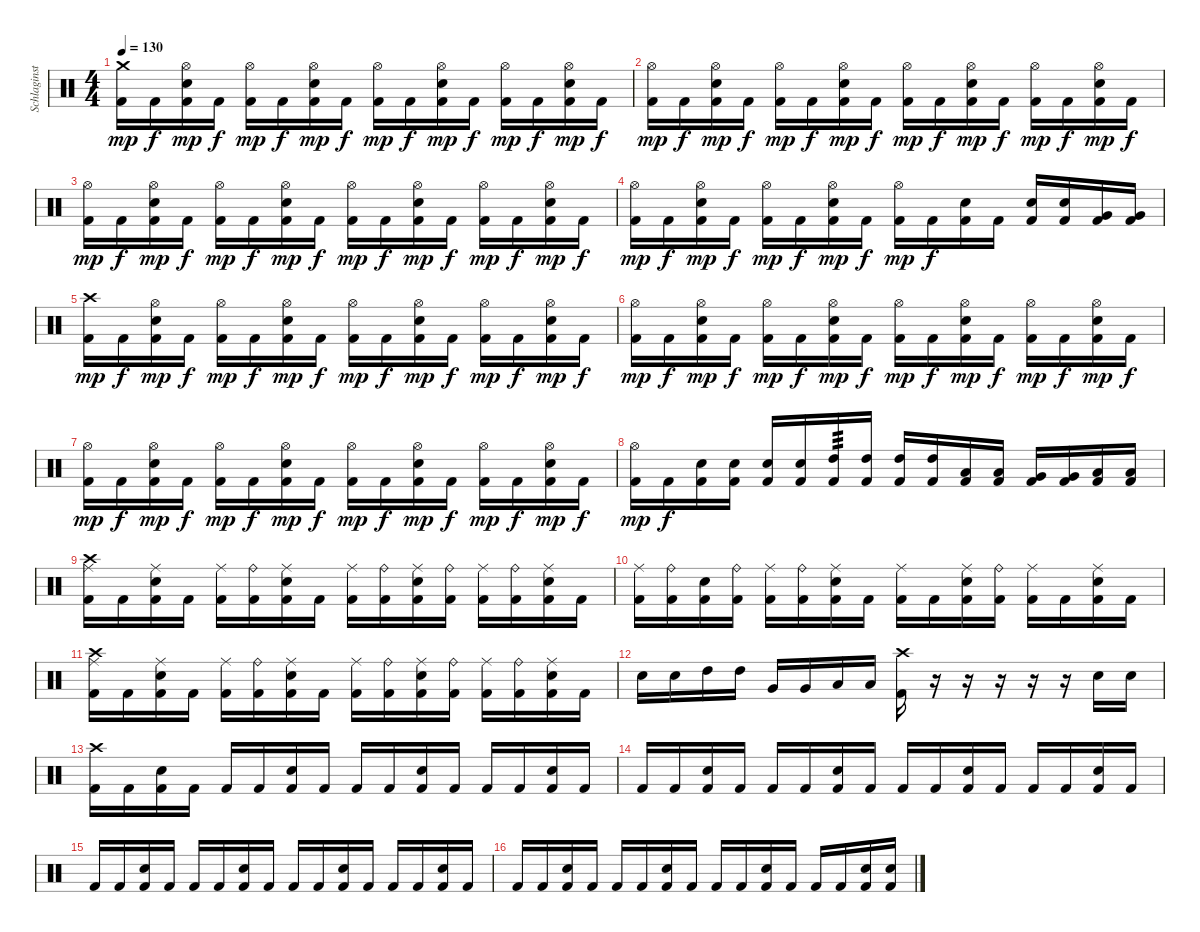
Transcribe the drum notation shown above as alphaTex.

\track ("Schlaginstrumente - Auswahl" "Schlaginst") {instrument percussion}
\staff {score}
\articulation defaults
\ts (4 4)
\tempo 130
\clef neutral
\ks c
("Crash medium (hit)" "Kick (hit) 2").16{dy mp} "Kick (hit) 2".16{dy f} ("Hi-Hat (open)" "Electric Snare (hit)" "Kick (hit) 2").16{dy mp} "Kick (hit) 2".16{dy f} ("Hi-Hat (open)" "Kick (hit) 2").16{dy mp} "Kick (hit) 2".16{dy f} ("Hi-Hat (open)" "Electric Snare (hit)" "Kick (hit) 2").16{dy mp} "Kick (hit) 2".16{dy f} ("Hi-Hat (open)" "Kick (hit) 2").16{dy mp} "Kick (hit) 2".16{dy f} ("Hi-Hat (open)" "Electric Snare (hit)" "Kick (hit) 2").16{dy mp} "Kick (hit) 2".16{dy f} ("Hi-Hat (open)" "Kick (hit) 2").16{dy mp} "Kick (hit) 2".16{dy f} ("Hi-Hat (open)" "Electric Snare (hit)" "Kick (hit) 2").16{dy mp} "Kick (hit) 2".16{dy f} |
("Hi-Hat (open)" "Kick (hit) 2").16{dy mp} "Kick (hit) 2".16{dy f} ("Hi-Hat (open)" "Electric Snare (hit)" "Kick (hit) 2").16{dy mp} "Kick (hit) 2".16{dy f} ("Hi-Hat (open)" "Kick (hit) 2").16{dy mp} "Kick (hit) 2".16{dy f} ("Hi-Hat (open)" "Electric Snare (hit)" "Kick (hit) 2").16{dy mp} "Kick (hit) 2".16{dy f} ("Hi-Hat (open)" "Kick (hit) 2").16{dy mp} "Kick (hit) 2".16{dy f} ("Hi-Hat (open)" "Electric Snare (hit)" "Kick (hit) 2").16{dy mp} "Kick (hit) 2".16{dy f} ("Hi-Hat (open)" "Kick (hit) 2").16{dy mp} "Kick (hit) 2".16{dy f} ("Hi-Hat (open)" "Electric Snare (hit)" "Kick (hit) 2").16{dy mp} "Kick (hit) 2".16{dy f} |
("Hi-Hat (open)" "Kick (hit) 2").16{dy mp} "Kick (hit) 2".16{dy f} ("Hi-Hat (open)" "Electric Snare (hit)" "Kick (hit) 2").16{dy mp} "Kick (hit) 2".16{dy f} ("Hi-Hat (open)" "Kick (hit) 2").16{dy mp} "Kick (hit) 2".16{dy f} ("Hi-Hat (open)" "Electric Snare (hit)" "Kick (hit) 2").16{dy mp} "Kick (hit) 2".16{dy f} ("Hi-Hat (open)" "Kick (hit) 2").16{dy mp} "Kick (hit) 2".16{dy f} ("Hi-Hat (open)" "Electric Snare (hit)" "Kick (hit) 2").16{dy mp} "Kick (hit) 2".16{dy f} ("Hi-Hat (open)" "Kick (hit) 2").16{dy mp} "Kick (hit) 2".16{dy f} ("Hi-Hat (open)" "Electric Snare (hit)" "Kick (hit) 2").16{dy mp} "Kick (hit) 2".16{dy f} |
("Hi-Hat (open)" "Kick (hit) 2").16{dy mp} "Kick (hit) 2".16{dy f} ("Hi-Hat (open)" "Electric Snare (hit)" "Kick (hit) 2").16{dy mp} "Kick (hit) 2".16{dy f} ("Hi-Hat (open)" "Kick (hit) 2").16{dy mp} "Kick (hit) 2".16{dy f} ("Hi-Hat (open)" "Electric Snare (hit)" "Kick (hit) 2").16{dy mp} "Kick (hit) 2".16{dy f} ("Hi-Hat (open)" "Kick (hit) 2").16{dy mp} "Kick (hit) 2".16{dy f} ("Electric Snare (hit)" "Kick (hit) 2").16 "Kick (hit) 2".16 ("Electric Snare (hit)" "Kick (hit) 2").16 ("Electric Snare (hit)" "Kick (hit) 2").16 ("Very Low Tom (hit)" "Kick (hit) 2").16 ("Very Low Tom (hit)" "Kick (hit) 2").16 |
("Crash high (hit)" "Kick (hit) 2").16{dy mp} "Kick (hit) 2".16{dy f} ("Hi-Hat (open)" "Electric Snare (hit)" "Kick (hit) 2").16{dy mp} "Kick (hit) 2".16{dy f} ("Hi-Hat (open)" "Kick (hit) 2").16{dy mp} "Kick (hit) 2".16{dy f} ("Hi-Hat (open)" "Electric Snare (hit)" "Kick (hit) 2").16{dy mp} "Kick (hit) 2".16{dy f} ("Hi-Hat (open)" "Kick (hit) 2").16{dy mp} "Kick (hit) 2".16{dy f} ("Hi-Hat (open)" "Electric Snare (hit)" "Kick (hit) 2").16{dy mp} "Kick (hit) 2".16{dy f} ("Hi-Hat (open)" "Kick (hit) 2").16{dy mp} "Kick (hit) 2".16{dy f} ("Hi-Hat (open)" "Electric Snare (hit)" "Kick (hit) 2").16{dy mp} "Kick (hit) 2".16{dy f} |
("Hi-Hat (open)" "Kick (hit) 2").16{dy mp} "Kick (hit) 2".16{dy f} ("Hi-Hat (open)" "Electric Snare (hit)" "Kick (hit) 2").16{dy mp} "Kick (hit) 2".16{dy f} ("Hi-Hat (open)" "Kick (hit) 2").16{dy mp} "Kick (hit) 2".16{dy f} ("Hi-Hat (open)" "Electric Snare (hit)" "Kick (hit) 2").16{dy mp} "Kick (hit) 2".16{dy f} ("Hi-Hat (open)" "Kick (hit) 2").16{dy mp} "Kick (hit) 2".16{dy f} ("Hi-Hat (open)" "Electric Snare (hit)" "Kick (hit) 2").16{dy mp} "Kick (hit) 2".16{dy f} ("Hi-Hat (open)" "Kick (hit) 2").16{dy mp} "Kick (hit) 2".16{dy f} ("Hi-Hat (open)" "Electric Snare (hit)" "Kick (hit) 2").16{dy mp} "Kick (hit) 2".16{dy f} |
("Hi-Hat (open)" "Kick (hit) 2").16{dy mp} "Kick (hit) 2".16{dy f} ("Hi-Hat (open)" "Electric Snare (hit)" "Kick (hit) 2").16{dy mp} "Kick (hit) 2".16{dy f} ("Hi-Hat (open)" "Kick (hit) 2").16{dy mp} "Kick (hit) 2".16{dy f} ("Hi-Hat (open)" "Electric Snare (hit)" "Kick (hit) 2").16{dy mp} "Kick (hit) 2".16{dy f} ("Hi-Hat (open)" "Kick (hit) 2").16{dy mp} "Kick (hit) 2".16{dy f} ("Hi-Hat (open)" "Electric Snare (hit)" "Kick (hit) 2").16{dy mp} "Kick (hit) 2".16{dy f} ("Hi-Hat (open)" "Kick (hit) 2").16{dy mp} "Kick (hit) 2".16{dy f} ("Hi-Hat (open)" "Electric Snare (hit)" "Kick (hit) 2").16{dy mp} "Kick (hit) 2".16{dy f} |
("Hi-Hat (open)" "Kick (hit) 2").16{dy mp} "Kick (hit) 2".16{dy f} ("Electric Snare (hit)" "Kick (hit) 2").16 ("Electric Snare (hit)" "Kick (hit) 2").16 ("Electric Snare (hit)" "Kick (hit) 2").16 ("Electric Snare (hit)" "Kick (hit) 2").16 ("High Tom (hit)" "Kick (hit) 2").16{tp 3} ("High Tom (hit)" "Kick (hit) 2").16 ("High Tom (hit)" "Kick (hit) 2").16 ("High Tom (hit)" "Kick (hit) 2").16 ("Low Tom (hit)" "Kick (hit) 2").16 ("Low Tom (hit)" "Kick (hit) 2").16 ("Very Low Tom (hit)" "Kick (hit) 2").16 ("Very Low Tom (hit)" "Kick (hit) 2").16 ("Low Floor Tom (hit)" "Kick (hit) 2").16 ("Low Floor Tom (hit)" "Kick (hit) 2").16 |
("Crash high (hit)" "Ride (middle)" "Kick (hit) 2").16 "Kick (hit) 2".16 ("Ride (middle)" "Electric Snare (hit)" "Kick (hit) 2").16 "Kick (hit) 2".16 ("Ride (middle)" "Kick (hit) 2").16 ("Ride (bell)" "Kick (hit) 2").16 ("Ride (middle)" "Electric Snare (hit)" "Kick (hit) 2").16 "Kick (hit) 2".16 ("Ride (middle)" "Kick (hit) 2").16 ("Ride (bell)" "Kick (hit) 2").16 ("Ride (middle)" "Electric Snare (hit)" "Kick (hit) 2").16 ("Ride (bell)" "Kick (hit) 2").16 ("Ride (middle)" "Kick (hit) 2").16 ("Ride (bell)" "Kick (hit) 2").16 ("Ride (middle)" "Electric Snare (hit)" "Kick (hit) 2").16 "Kick (hit) 2".16 |
("Ride (middle)" "Kick (hit) 2").16 ("Ride (bell)" "Kick (hit) 2").16 ("Electric Snare (hit)" "Kick (hit) 2").16 ("Ride (bell)" "Kick (hit) 2").16 ("Ride (middle)" "Kick (hit) 2").16 ("Ride (bell)" "Kick (hit) 2").16 ("Ride (middle)" "Electric Snare (hit)" "Kick (hit) 2").16 "Kick (hit) 2".16 ("Ride (middle)" "Kick (hit) 2").16 "Kick (hit) 2".16 ("Ride (middle)" "Electric Snare (hit)" "Kick (hit) 2").16 ("Ride (bell)" "Kick (hit) 2").16 ("Ride (middle)" "Kick (hit) 2").16 "Kick (hit) 2".16 ("Ride (middle)" "Electric Snare (hit)" "Kick (hit) 2").16 "Kick (hit) 2".16 |
("Crash high (hit)" "Ride (middle)" "Kick (hit) 2").16 "Kick (hit) 2".16 ("Ride (middle)" "Electric Snare (hit)" "Kick (hit) 2").16 "Kick (hit) 2".16 ("Ride (middle)" "Kick (hit) 2").16 ("Ride (bell)" "Kick (hit) 2").16 ("Ride (middle)" "Electric Snare (hit)" "Kick (hit) 2").16 "Kick (hit) 2".16 ("Ride (middle)" "Kick (hit) 2").16 ("Ride (bell)" "Kick (hit) 2").16 ("Ride (middle)" "Electric Snare (hit)" "Kick (hit) 2").16 ("Ride (bell)" "Kick (hit) 2").16 ("Ride (middle)" "Kick (hit) 2").16 ("Ride (bell)" "Kick (hit) 2").16 ("Ride (middle)" "Electric Snare (hit)" "Kick (hit) 2").16 "Kick (hit) 2".16 |
"Electric Snare (hit)".16 "Electric Snare (hit)".16 "High Tom (hit)".16 "High Tom (hit)".16 "Very Low Tom (hit)".16 "Very Low Tom (hit)".16 "Low Floor Tom (hit)".16 "Low Floor Tom (hit)".16 ("Crash high (hit)" "Kick (hit) 2").16 r.16 r.16 r.16 r.16 r.16 "Electric Snare (hit)".16 "Electric Snare (hit)".16 |
("Crash high (hit)" "Kick (hit) 2").16 "Kick (hit) 2".16 ("Electric Snare (hit)" "Kick (hit) 2").16 "Kick (hit) 2".16 "Kick (hit) 2".16 "Kick (hit) 2".16 ("Electric Snare (hit)" "Kick (hit) 2").16 "Kick (hit) 2".16 "Kick (hit) 2".16 "Kick (hit) 2".16 ("Electric Snare (hit)" "Kick (hit) 2").16 "Kick (hit) 2".16 "Kick (hit) 2".16 "Kick (hit) 2".16 ("Electric Snare (hit)" "Kick (hit) 2").16 "Kick (hit) 2".16 |
"Kick (hit) 2".16 "Kick (hit) 2".16 ("Electric Snare (hit)" "Kick (hit) 2").16 "Kick (hit) 2".16 "Kick (hit) 2".16 "Kick (hit) 2".16 ("Electric Snare (hit)" "Kick (hit) 2").16 "Kick (hit) 2".16 "Kick (hit) 2".16 "Kick (hit) 2".16 ("Electric Snare (hit)" "Kick (hit) 2").16 "Kick (hit) 2".16 "Kick (hit) 2".16 "Kick (hit) 2".16 ("Electric Snare (hit)" "Kick (hit) 2").16 "Kick (hit) 2".16 |
"Kick (hit) 2".16 "Kick (hit) 2".16 ("Electric Snare (hit)" "Kick (hit) 2").16 "Kick (hit) 2".16 "Kick (hit) 2".16 "Kick (hit) 2".16 ("Electric Snare (hit)" "Kick (hit) 2").16 "Kick (hit) 2".16 "Kick (hit) 2".16 "Kick (hit) 2".16 ("Electric Snare (hit)" "Kick (hit) 2").16 "Kick (hit) 2".16 "Kick (hit) 2".16 "Kick (hit) 2".16 ("Electric Snare (hit)" "Kick (hit) 2").16 "Kick (hit) 2".16 |
"Kick (hit) 2".16 "Kick (hit) 2".16 ("Electric Snare (hit)" "Kick (hit) 2").16 "Kick (hit) 2".16 "Kick (hit) 2".16 "Kick (hit) 2".16 ("Electric Snare (hit)" "Kick (hit) 2").16 "Kick (hit) 2".16 "Kick (hit) 2".16 "Kick (hit) 2".16 ("Electric Snare (hit)" "Kick (hit) 2").16 "Kick (hit) 2".16 "Kick (hit) 2".16 "Kick (hit) 2".16 ("Electric Snare (hit)" "Kick (hit) 2").16 ("Electric Snare (hit)" "Kick (hit) 2").16
